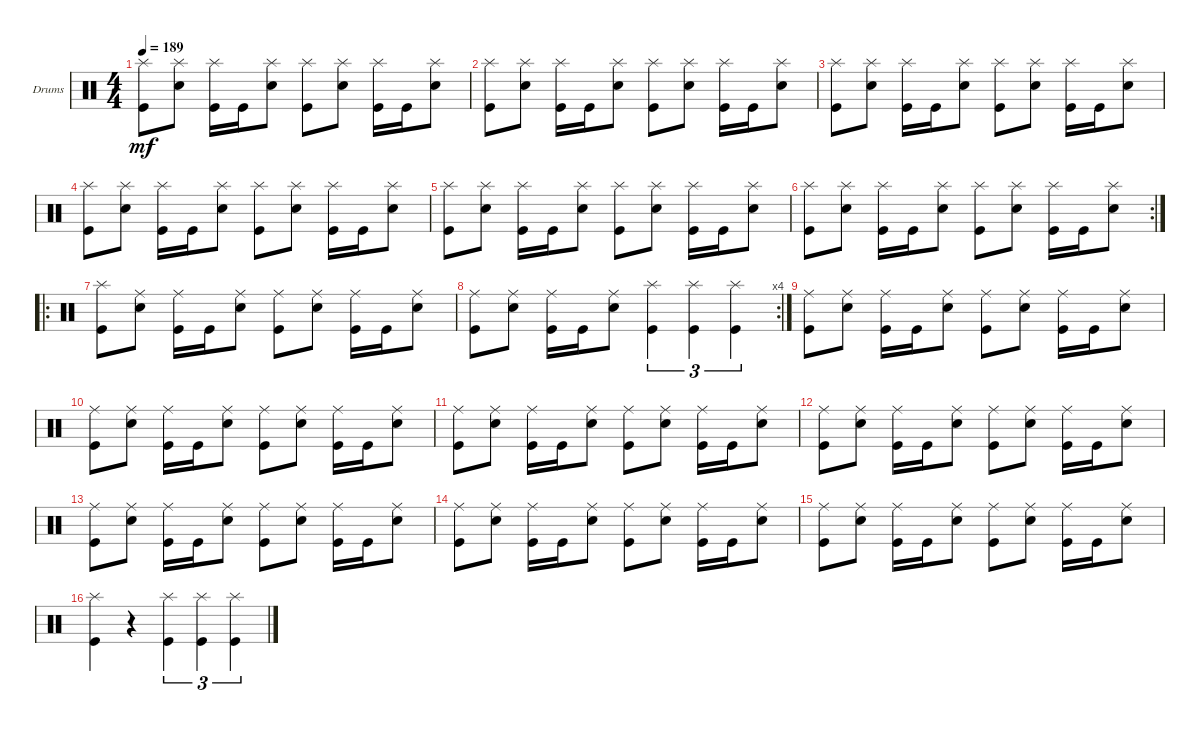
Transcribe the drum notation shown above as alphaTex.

\defaultSystemsLayout 4
\bracketExtendMode groupsimilarinstruments
\firstSystemTrackNameOrientation horizontal
\otherSystemsTrackNameOrientation horizontal
\track ("Drumkit" "Drums") {instrument percussion}
\staff {score}
\articulation defaults
\ts (4 4)
\tempo 189
\clef neutral
\ks c
("Kick (hit)" "Splash (hit)").8{dy mf} ("Snare (hit) 2" "Splash (hit)").8 ("Kick (hit)" "Splash (hit)").16 "Kick (hit)".16 ("Snare (hit) 2" "Splash (hit)").8 ("Kick (hit)" "Splash (hit)").8 ("Snare (hit) 2" "Splash (hit)").8 ("Kick (hit)" "Splash (hit)").16 "Kick (hit)".16 ("Snare (hit) 2" "Splash (hit)").8 |
("Kick (hit)" "Splash (hit)").8 ("Snare (hit) 2" "Splash (hit)").8 ("Kick (hit)" "Splash (hit)").16 "Kick (hit)".16 ("Snare (hit) 2" "Splash (hit)").8 ("Kick (hit)" "Splash (hit)").8 ("Snare (hit) 2" "Splash (hit)").8 ("Kick (hit)" "Splash (hit)").16 "Kick (hit)".16 ("Snare (hit) 2" "Splash (hit)").8 |
("Kick (hit)" "Splash (hit)").8 ("Snare (hit) 2" "Splash (hit)").8 ("Kick (hit)" "Splash (hit)").16 "Kick (hit)".16 ("Snare (hit) 2" "Splash (hit)").8 ("Kick (hit)" "Splash (hit)").8 ("Snare (hit) 2" "Splash (hit)").8 ("Kick (hit)" "Splash (hit)").16 "Kick (hit)".16 ("Snare (hit) 2" "Splash (hit)").8 |
("Kick (hit)" "Splash (hit)").8 ("Snare (hit) 2" "Splash (hit)").8 ("Kick (hit)" "Splash (hit)").16 "Kick (hit)".16 ("Snare (hit) 2" "Splash (hit)").8 ("Kick (hit)" "Splash (hit)").8 ("Snare (hit) 2" "Splash (hit)").8 ("Kick (hit)" "Splash (hit)").16 "Kick (hit)".16 ("Snare (hit) 2" "Splash (hit)").8 |
("Kick (hit)" "Splash (hit)").8 ("Snare (hit) 2" "Splash (hit)").8 ("Kick (hit)" "Splash (hit)").16 "Kick (hit)".16 ("Snare (hit) 2" "Splash (hit)").8 ("Kick (hit)" "Splash (hit)").8 ("Snare (hit) 2" "Splash (hit)").8 ("Kick (hit)" "Splash (hit)").16 "Kick (hit)".16 ("Snare (hit) 2" "Splash (hit)").8 |
\rc 2
("Kick (hit)" "Splash (hit)").8 ("Snare (hit) 2" "Splash (hit)").8 ("Kick (hit)" "Splash (hit)").16 "Kick (hit)".16 ("Snare (hit) 2" "Splash (hit)").8 ("Kick (hit)" "Splash (hit)").8 ("Snare (hit) 2" "Splash (hit)").8 ("Kick (hit)" "Splash (hit)").16 "Kick (hit)".16 ("Snare (hit) 2" "Splash (hit)").8 |
\ro
("Kick (hit)" "Splash (hit)").8 ("Snare (hit) 2" "Ride (middle)").8 ("Kick (hit)" "Ride (middle)").16 "Kick (hit)".16 ("Snare (hit) 2" "Ride (middle)").8 ("Kick (hit)" "Ride (middle)").8 ("Snare (hit) 2" "Ride (middle)").8 ("Kick (hit)" "Ride (middle)").16 "Kick (hit)".16 ("Snare (hit) 2" "Ride (middle)").8 |
\rc 4
("Kick (hit)" "Ride (middle)").8 ("Snare (hit) 2" "Ride (middle)").8 ("Kick (hit)" "Ride (middle)").16 "Kick (hit)".16 ("Snare (hit) 2" "Ride (middle)").8 ("Kick (hit)" "Splash (hit)").4{tu (3 2)} ("Kick (hit)" "Splash (hit)").4{tu (3 2)} ("Kick (hit)" "Splash (hit)").4{tu (3 2)} |
("Kick (hit)" "Ride (middle)").8 ("Snare (hit) 2" "Ride (middle)").8 ("Kick (hit)" "Ride (middle)").16 "Kick (hit)".16 ("Snare (hit) 2" "Ride (middle)").8 ("Kick (hit)" "Ride (middle)").8 ("Snare (hit) 2" "Ride (middle)").8 ("Kick (hit)" "Ride (middle)").16 "Kick (hit)".16 ("Snare (hit) 2" "Ride (middle)").8 |
("Kick (hit)" "Ride (middle)").8 ("Snare (hit) 2" "Ride (middle)").8 ("Kick (hit)" "Ride (middle)").16 "Kick (hit)".16 ("Snare (hit) 2" "Ride (middle)").8 ("Kick (hit)" "Ride (middle)").8 ("Snare (hit) 2" "Ride (middle)").8 ("Kick (hit)" "Ride (middle)").16 "Kick (hit)".16 ("Snare (hit) 2" "Ride (middle)").8 |
("Kick (hit)" "Ride (middle)").8 ("Snare (hit) 2" "Ride (middle)").8 ("Kick (hit)" "Ride (middle)").16 "Kick (hit)".16 ("Snare (hit) 2" "Ride (middle)").8 ("Kick (hit)" "Ride (middle)").8 ("Snare (hit) 2" "Ride (middle)").8 ("Kick (hit)" "Ride (middle)").16 "Kick (hit)".16 ("Snare (hit) 2" "Ride (middle)").8 |
("Kick (hit)" "Ride (middle)").8 ("Snare (hit) 2" "Ride (middle)").8 ("Kick (hit)" "Ride (middle)").16 "Kick (hit)".16 ("Snare (hit) 2" "Ride (middle)").8 ("Kick (hit)" "Ride (middle)").8 ("Snare (hit) 2" "Ride (middle)").8 ("Kick (hit)" "Ride (middle)").16 "Kick (hit)".16 ("Snare (hit) 2" "Ride (middle)").8 |
("Kick (hit)" "Ride (middle)").8 ("Snare (hit) 2" "Ride (middle)").8 ("Kick (hit)" "Ride (middle)").16 "Kick (hit)".16 ("Snare (hit) 2" "Ride (middle)").8 ("Kick (hit)" "Ride (middle)").8 ("Snare (hit) 2" "Ride (middle)").8 ("Kick (hit)" "Ride (middle)").16 "Kick (hit)".16 ("Snare (hit) 2" "Ride (middle)").8 |
("Kick (hit)" "Ride (middle)").8 ("Snare (hit) 2" "Ride (middle)").8 ("Kick (hit)" "Ride (middle)").16 "Kick (hit)".16 ("Snare (hit) 2" "Ride (middle)").8 ("Kick (hit)" "Ride (middle)").8 ("Snare (hit) 2" "Ride (middle)").8 ("Kick (hit)" "Ride (middle)").16 "Kick (hit)".16 ("Snare (hit) 2" "Ride (middle)").8 |
("Kick (hit)" "Ride (middle)").8 ("Snare (hit) 2" "Ride (middle)").8 ("Kick (hit)" "Ride (middle)").16 "Kick (hit)".16 ("Snare (hit) 2" "Ride (middle)").8 ("Kick (hit)" "Ride (middle)").8 ("Snare (hit) 2" "Ride (middle)").8 ("Kick (hit)" "Ride (middle)").16 "Kick (hit)".16 ("Snare (hit) 2" "Ride (middle)").8 |
("Kick (hit)" "Splash (hit)").4 r.4 ("Kick (hit)" "Splash (hit)").4{tu (3 2)} ("Kick (hit)" "Splash (hit)").4{tu (3 2)} ("Kick (hit)" "Splash (hit)").4{tu (3 2)}
